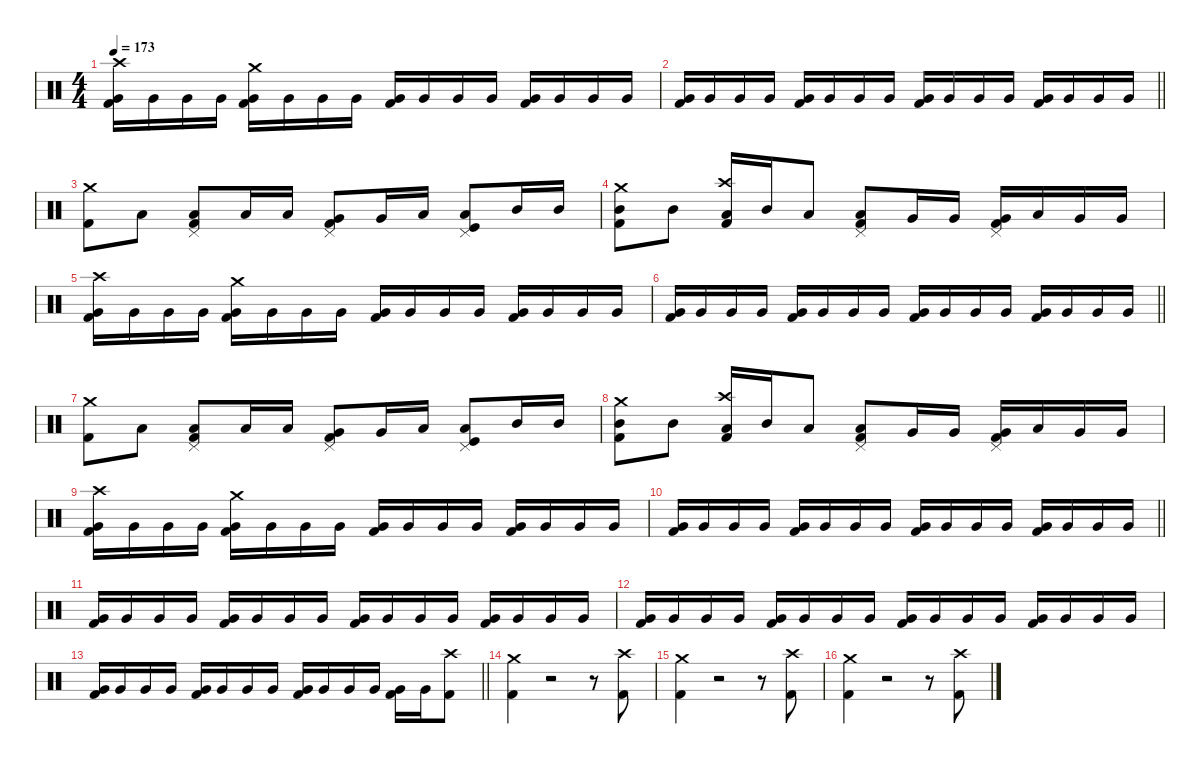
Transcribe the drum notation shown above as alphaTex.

\defaultSystemsLayout 4
\hideDynamics
\bracketExtendMode nobrackets
\singleTrackTrackNamePolicy hidden
\multiTrackTrackNamePolicy hidden
\firstSystemTrackNameMode fullname
\firstSystemTrackNameOrientation horizontal
\otherSystemsTrackNameOrientation horizontal
\track ("Bill Ward" "drm.") {instrument percussion}
\staff {score}
\articulation defaults
\ts (4 4)
\tempo 173
\clef neutral
\ks c
("Very Low Tom (hit)" "Kick (hit) 2" "Crash high (hit)").16{dy f beam Down} "Very Low Tom (hit)".16{beam Down} "Very Low Tom (hit)".16{beam Down} "Very Low Tom (hit)".16{beam Down} ("Very Low Tom (hit)" "Kick (hit) 2" "Crash medium (hit)").16{beam Down} "Very Low Tom (hit)".16{beam Down} "Very Low Tom (hit)".16{beam Down} "Very Low Tom (hit)".16{beam Down} ("Very Low Tom (hit)" "Kick (hit) 2").16{beam Up} "Very Low Tom (hit)".16{beam Up} "Very Low Tom (hit)".16{beam Up} "Very Low Tom (hit)".16{beam Up} ("Very Low Tom (hit)" "Kick (hit) 2").16{beam Up} "Very Low Tom (hit)".16{beam Up} "Very Low Tom (hit)".16{beam Up} "Very Low Tom (hit)".16{beam Up} |
\barLineRight lightlight
("Very Low Tom (hit)" "Kick (hit) 2").16{beam Up} "Very Low Tom (hit)".16{beam Up} "Very Low Tom (hit)".16{beam Up} "Very Low Tom (hit)".16{beam Up} ("Very Low Tom (hit)" "Kick (hit) 2").16{beam Up} "Very Low Tom (hit)".16{beam Up} "Very Low Tom (hit)".16{beam Up} "Very Low Tom (hit)".16{beam Up} ("Very Low Tom (hit)" "Kick (hit) 2").16{beam Up} "Very Low Tom (hit)".16{beam Up} "Very Low Tom (hit)".16{beam Up} "Very Low Tom (hit)".16{beam Up} ("Very Low Tom (hit)" "Kick (hit) 2").16{beam Up} "Very Low Tom (hit)".16{beam Up} "Very Low Tom (hit)".16{beam Up} "Very Low Tom (hit)".16{beam Up} |
("Kick (hit) 2" "Crash medium (hit)").8{beam Down} "Low Tom (hit)".8{beam Down} ("Low Tom (hit)" "Kick (hit) 2" "Pedal Hi-Hat (hit)").8{beam Up} "Low Tom (hit)".16{beam Up} "Low Tom (hit)".16{beam Up} ("Very Low Tom (hit)" "Kick (hit) 2" "Pedal Hi-Hat (hit)").8{beam Up} "Very Low Tom (hit)".16{beam Up} "Low Tom (hit)".16{beam Up} ("Low Tom (hit)" "Kick (hit)" "Pedal Hi-Hat (hit)").8{beam Up} "Mid Tom (hit)".16{beam Up} "Mid Tom (hit)".16{beam Up} |
("Mid Tom (hit)" "Crash medium (hit)" "Kick (hit) 2").8{beam Down} "Mid Tom (hit)".8{beam Down} ("Low Tom (hit)" "Crash high (hit)" "Kick (hit) 2").16{beam Up} "Mid Tom (hit)".16{beam Up} "Low Tom (hit)".8{beam Up} ("Low Tom (hit)" "Kick (hit) 2" "Pedal Hi-Hat (hit)").8{beam Up} "Very Low Tom (hit)".16{beam Up} "Very Low Tom (hit)".16{beam Up} ("Very Low Tom (hit)" "Kick (hit) 2" "Pedal Hi-Hat (hit)").16{beam Up} "Low Floor Tom (hit)".16{beam Up} "Very Low Tom (hit)".16{beam Up} "Very Low Tom (hit)".16{beam Up} |
("Very Low Tom (hit)" "Kick (hit) 2" "Crash high (hit)").16{beam Down} "Very Low Tom (hit)".16{beam Down} "Very Low Tom (hit)".16{beam Down} "Very Low Tom (hit)".16{beam Down} ("Very Low Tom (hit)" "Kick (hit) 2" "Crash medium (hit)").16{beam Down} "Very Low Tom (hit)".16{beam Down} "Very Low Tom (hit)".16{beam Down} "Very Low Tom (hit)".16{beam Down} ("Very Low Tom (hit)" "Kick (hit) 2").16{beam Up} "Very Low Tom (hit)".16{beam Up} "Very Low Tom (hit)".16{beam Up} "Very Low Tom (hit)".16{beam Up} ("Very Low Tom (hit)" "Kick (hit) 2").16{beam Up} "Very Low Tom (hit)".16{beam Up} "Very Low Tom (hit)".16{beam Up} "Very Low Tom (hit)".16{beam Up} |
\barLineRight lightlight
("Very Low Tom (hit)" "Kick (hit) 2").16{beam Up} "Very Low Tom (hit)".16{beam Up} "Very Low Tom (hit)".16{beam Up} "Very Low Tom (hit)".16{beam Up} ("Very Low Tom (hit)" "Kick (hit) 2").16{beam Up} "Very Low Tom (hit)".16{beam Up} "Very Low Tom (hit)".16{beam Up} "Very Low Tom (hit)".16{beam Up} ("Very Low Tom (hit)" "Kick (hit) 2").16{beam Up} "Very Low Tom (hit)".16{beam Up} "Very Low Tom (hit)".16{beam Up} "Very Low Tom (hit)".16{beam Up} ("Very Low Tom (hit)" "Kick (hit) 2").16{beam Up} "Very Low Tom (hit)".16{beam Up} "Very Low Tom (hit)".16{beam Up} "Very Low Tom (hit)".16{beam Up} |
("Kick (hit) 2" "Crash medium (hit)").8{beam Down} "Low Tom (hit)".8{beam Down} ("Low Tom (hit)" "Kick (hit) 2" "Pedal Hi-Hat (hit)").8{beam Up} "Low Tom (hit)".16{beam Up} "Low Tom (hit)".16{beam Up} ("Very Low Tom (hit)" "Kick (hit) 2" "Pedal Hi-Hat (hit)").8{beam Up} "Very Low Tom (hit)".16{beam Up} "Low Tom (hit)".16{beam Up} ("Low Tom (hit)" "Kick (hit)" "Pedal Hi-Hat (hit)").8{beam Up} "Mid Tom (hit)".16{beam Up} "Mid Tom (hit)".16{beam Up} |
("Mid Tom (hit)" "Crash medium (hit)" "Kick (hit) 2").8{beam Down} "Mid Tom (hit)".8{beam Down} ("Low Tom (hit)" "Crash high (hit)" "Kick (hit) 2").16{beam Up} "Mid Tom (hit)".16{beam Up} "Low Tom (hit)".8{beam Up} ("Low Tom (hit)" "Kick (hit) 2" "Pedal Hi-Hat (hit)").8{beam Up} "Very Low Tom (hit)".16{beam Up} "Very Low Tom (hit)".16{beam Up} ("Very Low Tom (hit)" "Kick (hit) 2" "Pedal Hi-Hat (hit)").16{beam Up} "Low Floor Tom (hit)".16{beam Up} "Very Low Tom (hit)".16{beam Up} "Very Low Tom (hit)".16{beam Up} |
("Very Low Tom (hit)" "Kick (hit) 2" "Crash high (hit)").16{beam Down} "Very Low Tom (hit)".16{beam Down} "Very Low Tom (hit)".16{beam Down} "Very Low Tom (hit)".16{beam Down} ("Very Low Tom (hit)" "Kick (hit) 2" "Crash medium (hit)").16{beam Down} "Very Low Tom (hit)".16{beam Down} "Very Low Tom (hit)".16{beam Down} "Very Low Tom (hit)".16{beam Down} ("Very Low Tom (hit)" "Kick (hit) 2").16{beam Up} "Very Low Tom (hit)".16{beam Up} "Very Low Tom (hit)".16{beam Up} "Very Low Tom (hit)".16{beam Up} ("Very Low Tom (hit)" "Kick (hit) 2").16{beam Up} "Very Low Tom (hit)".16{beam Up} "Very Low Tom (hit)".16{beam Up} "Very Low Tom (hit)".16{beam Up} |
\barLineRight lightlight
("Very Low Tom (hit)" "Kick (hit) 2").16{beam Up} "Very Low Tom (hit)".16{beam Up} "Very Low Tom (hit)".16{beam Up} "Very Low Tom (hit)".16{beam Up} ("Very Low Tom (hit)" "Kick (hit) 2").16{beam Up} "Very Low Tom (hit)".16{beam Up} "Very Low Tom (hit)".16{beam Up} "Very Low Tom (hit)".16{beam Up} ("Very Low Tom (hit)" "Kick (hit) 2").16{beam Up} "Very Low Tom (hit)".16{beam Up} "Very Low Tom (hit)".16{beam Up} "Very Low Tom (hit)".16{beam Up} ("Very Low Tom (hit)" "Kick (hit) 2").16{beam Up} "Very Low Tom (hit)".16{beam Up} "Very Low Tom (hit)".16{beam Up} "Very Low Tom (hit)".16{beam Up} |
("Very Low Tom (hit)" "Kick (hit) 2").16{beam Up} "Very Low Tom (hit)".16{beam Up} "Very Low Tom (hit)".16{beam Up} "Very Low Tom (hit)".16{beam Up} ("Very Low Tom (hit)" "Kick (hit) 2").16{beam Up} "Very Low Tom (hit)".16{beam Up} "Very Low Tom (hit)".16{beam Up} "Very Low Tom (hit)".16{beam Up} ("Very Low Tom (hit)" "Kick (hit) 2").16{beam Up} "Very Low Tom (hit)".16{beam Up} "Very Low Tom (hit)".16{beam Up} "Very Low Tom (hit)".16{beam Up} ("Very Low Tom (hit)" "Kick (hit) 2").16{beam Up} "Very Low Tom (hit)".16{beam Up} "Very Low Tom (hit)".16{beam Up} "Very Low Tom (hit)".16{beam Up} |
("Very Low Tom (hit)" "Kick (hit) 2").16{beam Up} "Very Low Tom (hit)".16{beam Up} "Very Low Tom (hit)".16{beam Up} "Very Low Tom (hit)".16{beam Up} ("Very Low Tom (hit)" "Kick (hit) 2").16{beam Up} "Very Low Tom (hit)".16{beam Up} "Very Low Tom (hit)".16{beam Up} "Very Low Tom (hit)".16{beam Up} ("Very Low Tom (hit)" "Kick (hit) 2").16{beam Up} "Very Low Tom (hit)".16{beam Up} "Very Low Tom (hit)".16{beam Up} "Very Low Tom (hit)".16{beam Up} ("Very Low Tom (hit)" "Kick (hit) 2").16{beam Up} "Very Low Tom (hit)".16{beam Up} "Very Low Tom (hit)".16{beam Up} "Very Low Tom (hit)".16{beam Up} |
\barLineRight lightlight
("Very Low Tom (hit)" "Kick (hit) 2").16{beam Up} "Very Low Tom (hit)".16{beam Up} "Very Low Tom (hit)".16{beam Up} "Very Low Tom (hit)".16{beam Up} ("Very Low Tom (hit)" "Kick (hit) 2").16{beam Up} "Very Low Tom (hit)".16{beam Up} "Very Low Tom (hit)".16{beam Up} "Very Low Tom (hit)".16{beam Up} ("Very Low Tom (hit)" "Kick (hit) 2").16{beam Up} "Very Low Tom (hit)".16{beam Up} "Very Low Tom (hit)".16{beam Up} "Very Low Tom (hit)".16{beam Up} ("Very Low Tom (hit)" "Kick (hit) 2").16{beam Down} "Very Low Tom (hit)".16{beam Down} ("Kick (hit) 2" "Crash high (hit)").8{beam Down} |
("Kick (hit) 2" "Crash medium (hit)").4{beam Down} r.2{beam Down} r.8{beam Down} ("Kick (hit) 2" "Crash high (hit)").8{beam Down} |
("Kick (hit) 2" "Crash medium (hit)").4{beam Down} r.2{beam Down} r.8{beam Down} ("Kick (hit) 2" "Crash high (hit)").8{beam Down} |
("Kick (hit) 2" "Crash medium (hit)").4{beam Down} r.2{beam Down} r.8{beam Down} ("Kick (hit) 2" "Crash high (hit)").8{beam Down}
